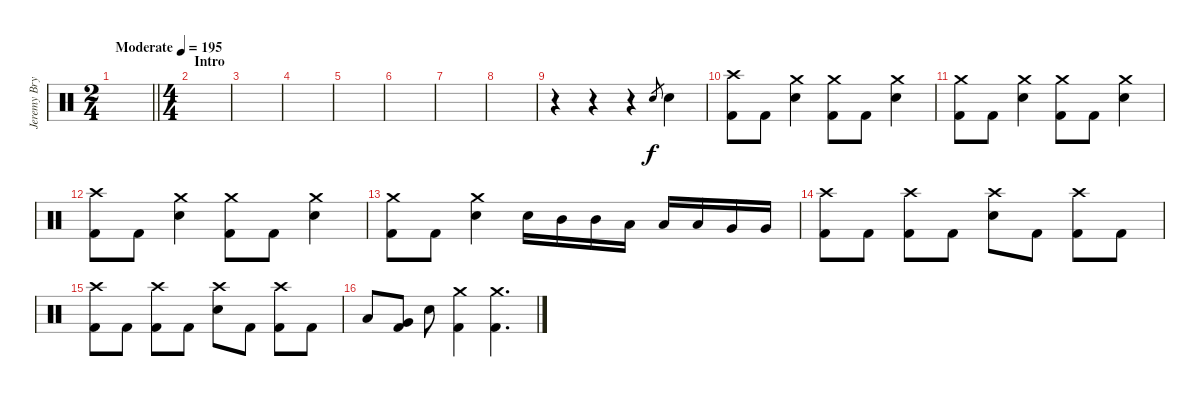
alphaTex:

\track ("Jeremy Bryan - Drums" "Jeremy Bry") {instrument percussion}
\staff {score}
\articulation defaults
\ts (2 4)
\tempo (195 "Moderate")
\clef neutral
\barLineRight lightlight
\ks c
|
\ts (4 4)
\section ("" "Intro")
|
|
|
|
|
|
|
r.4 r.4 r.4 "Electric Snare (hit)".8{gr} "Electric Snare (hit)".4 |
("Crash high (hit)" "Kick (hit) 2").8 "Kick (hit) 2".8 ("Crash medium (hit)" "Electric Snare (hit)").4 ("Crash medium (hit)" "Kick (hit) 2").8 "Kick (hit) 2".8 ("Crash medium (hit)" "Electric Snare (hit)").4 |
("Crash medium (hit)" "Kick (hit) 2").8 "Kick (hit) 2".8 ("Crash medium (hit)" "Electric Snare (hit)").4 ("Crash medium (hit)" "Kick (hit) 2").8 "Kick (hit) 2".8 ("Crash medium (hit)" "Electric Snare (hit)").4 |
("Crash high (hit)" "Kick (hit) 2").8 "Kick (hit) 2".8 ("Crash medium (hit)" "Electric Snare (hit)").4 ("Crash medium (hit)" "Kick (hit) 2").8 "Kick (hit) 2".8 ("Crash medium (hit)" "Electric Snare (hit)").4 |
("Crash medium (hit)" "Kick (hit) 2").8 "Kick (hit) 2".8 ("Crash medium (hit)" "Electric Snare (hit)").4 "Electric Snare (hit)".16 "Mid Tom (hit)".16 "Mid Tom (hit)".16 "Low Tom (hit)".16 "Low Tom (hit)".16 "Low Tom (hit)".16 "Very Low Tom (hit)".16 "Very Low Tom (hit)".16 |
("Crash high (hit)" "Kick (hit) 2").8 "Kick (hit) 2".8 ("Crash high (hit)" "Kick (hit) 2").8 "Kick (hit) 2".8 ("Crash high (hit)" "Electric Snare (hit)").8 "Kick (hit) 2".8 ("Crash high (hit)" "Kick (hit) 2").8 "Kick (hit) 2".8 |
("Crash high (hit)" "Kick (hit) 2").8 "Kick (hit) 2".8 ("Crash high (hit)" "Kick (hit) 2").8 "Kick (hit) 2".8 ("Crash high (hit)" "Electric Snare (hit)").8 "Kick (hit) 2".8 ("Crash high (hit)" "Kick (hit) 2").8 "Kick (hit) 2".8 |
"Low Tom (hit)".8 ("Very Low Tom (hit)" "Kick (hit) 2").8 "Electric Snare (hit)".8 ("Crash medium (hit)" "Kick (hit) 2").4 ("Crash medium (hit)" "Kick (hit) 2").4{d}
